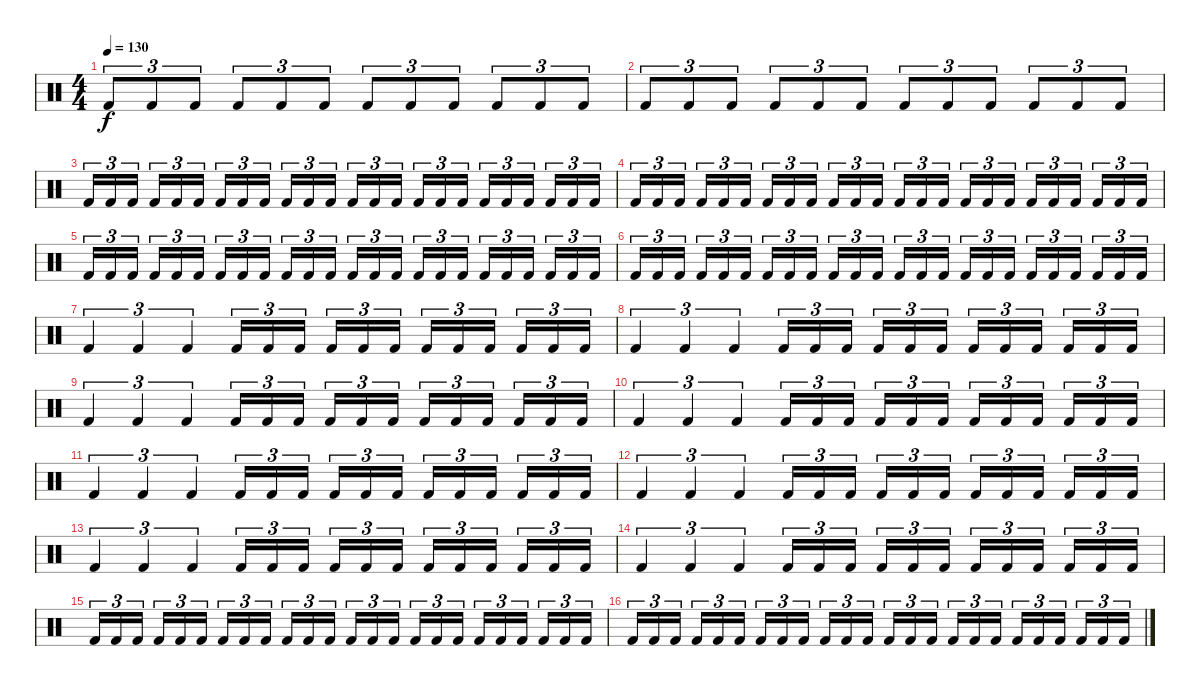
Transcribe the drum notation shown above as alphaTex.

\track "" {instrument percussion}
\staff {score}
\articulation defaults
\ts (4 4)
\tempo 130
\clef neutral
\ks c "Kick (hit) 2".8{tu (3 2) dy f} "Kick (hit) 2".8{tu (3 2)} "Kick (hit) 2".8{tu (3 2)} "Kick (hit) 2".8{tu (3 2)} "Kick (hit) 2".8{tu (3 2)} "Kick (hit) 2".8{tu (3 2)} "Kick (hit) 2".8{tu (3 2)} "Kick (hit) 2".8{tu (3 2)} "Kick (hit) 2".8{tu (3 2)} "Kick (hit) 2".8{tu (3 2)} "Kick (hit) 2".8{tu (3 2)} "Kick (hit) 2".8{tu (3 2)}
|
"Kick (hit) 2".8{tu (3 2)} "Kick (hit) 2".8{tu (3 2)} "Kick (hit) 2".8{tu (3 2)} "Kick (hit) 2".8{tu (3 2)} "Kick (hit) 2".8{tu (3 2)} "Kick (hit) 2".8{tu (3 2)} "Kick (hit) 2".8{tu (3 2)} "Kick (hit) 2".8{tu (3 2)} "Kick (hit) 2".8{tu (3 2)} "Kick (hit) 2".8{tu (3 2)} "Kick (hit) 2".8{tu (3 2)} "Kick (hit) 2".8{tu (3 2)} |
"Kick (hit) 2".16{tu (3 2)} "Kick (hit) 2".16{tu (3 2)} "Kick (hit) 2".16{tu (3 2)} "Kick (hit) 2".16{tu (3 2)} "Kick (hit) 2".16{tu (3 2)} "Kick (hit) 2".16{tu (3 2)} "Kick (hit) 2".16{tu (3 2)} "Kick (hit) 2".16{tu (3 2)} "Kick (hit) 2".16{tu (3 2)} "Kick (hit) 2".16{tu (3 2)} "Kick (hit) 2".16{tu (3 2)} "Kick (hit) 2".16{tu (3 2)} "Kick (hit) 2".16{tu (3 2)} "Kick (hit) 2".16{tu (3 2)} "Kick (hit) 2".16{tu (3 2)} "Kick (hit) 2".16{tu (3 2)} "Kick (hit) 2".16{tu (3 2)} "Kick (hit) 2".16{tu (3 2)} "Kick (hit) 2".16{tu (3 2)} "Kick (hit) 2".16{tu (3 2)} "Kick (hit) 2".16{tu (3 2)} "Kick (hit) 2".16{tu (3 2)} "Kick (hit) 2".16{tu (3 2)} "Kick (hit) 2".16{tu (3 2)} |
"Kick (hit) 2".16{tu (3 2)} "Kick (hit) 2".16{tu (3 2)} "Kick (hit) 2".16{tu (3 2)} "Kick (hit) 2".16{tu (3 2)} "Kick (hit) 2".16{tu (3 2)} "Kick (hit) 2".16{tu (3 2)} "Kick (hit) 2".16{tu (3 2)} "Kick (hit) 2".16{tu (3 2)} "Kick (hit) 2".16{tu (3 2)} "Kick (hit) 2".16{tu (3 2)} "Kick (hit) 2".16{tu (3 2)} "Kick (hit) 2".16{tu (3 2)} "Kick (hit) 2".16{tu (3 2)} "Kick (hit) 2".16{tu (3 2)} "Kick (hit) 2".16{tu (3 2)} "Kick (hit) 2".16{tu (3 2)} "Kick (hit) 2".16{tu (3 2)} "Kick (hit) 2".16{tu (3 2)} "Kick (hit) 2".16{tu (3 2)} "Kick (hit) 2".16{tu (3 2)} "Kick (hit) 2".16{tu (3 2)} "Kick (hit) 2".16{tu (3 2)} "Kick (hit) 2".16{tu (3 2)} "Kick (hit) 2".16{tu (3 2)} |
"Kick (hit) 2".16{tu (3 2)} "Kick (hit) 2".16{tu (3 2)} "Kick (hit) 2".16{tu (3 2)} "Kick (hit) 2".16{tu (3 2)} "Kick (hit) 2".16{tu (3 2)} "Kick (hit) 2".16{tu (3 2)} "Kick (hit) 2".16{tu (3 2)} "Kick (hit) 2".16{tu (3 2)} "Kick (hit) 2".16{tu (3 2)} "Kick (hit) 2".16{tu (3 2)} "Kick (hit) 2".16{tu (3 2)} "Kick (hit) 2".16{tu (3 2)} "Kick (hit) 2".16{tu (3 2)} "Kick (hit) 2".16{tu (3 2)} "Kick (hit) 2".16{tu (3 2)} "Kick (hit) 2".16{tu (3 2)} "Kick (hit) 2".16{tu (3 2)} "Kick (hit) 2".16{tu (3 2)} "Kick (hit) 2".16{tu (3 2)} "Kick (hit) 2".16{tu (3 2)} "Kick (hit) 2".16{tu (3 2)} "Kick (hit) 2".16{tu (3 2)} "Kick (hit) 2".16{tu (3 2)} "Kick (hit) 2".16{tu (3 2)} |
"Kick (hit) 2".16{tu (3 2)} "Kick (hit) 2".16{tu (3 2)} "Kick (hit) 2".16{tu (3 2)} "Kick (hit) 2".16{tu (3 2)} "Kick (hit) 2".16{tu (3 2)} "Kick (hit) 2".16{tu (3 2)} "Kick (hit) 2".16{tu (3 2)} "Kick (hit) 2".16{tu (3 2)} "Kick (hit) 2".16{tu (3 2)} "Kick (hit) 2".16{tu (3 2)} "Kick (hit) 2".16{tu (3 2)} "Kick (hit) 2".16{tu (3 2)} "Kick (hit) 2".16{tu (3 2)} "Kick (hit) 2".16{tu (3 2)} "Kick (hit) 2".16{tu (3 2)} "Kick (hit) 2".16{tu (3 2)} "Kick (hit) 2".16{tu (3 2)} "Kick (hit) 2".16{tu (3 2)} "Kick (hit) 2".16{tu (3 2)} "Kick (hit) 2".16{tu (3 2)} "Kick (hit) 2".16{tu (3 2)} "Kick (hit) 2".16{tu (3 2)} "Kick (hit) 2".16{tu (3 2)} "Kick (hit) 2".16{tu (3 2)} |
"Kick (hit) 2".4{tu (3 2)} "Kick (hit) 2".4{tu (3 2)} "Kick (hit) 2".4{tu (3 2)} "Kick (hit) 2".16{tu (3 2)} "Kick (hit) 2".16{tu (3 2)} "Kick (hit) 2".16{tu (3 2)} "Kick (hit) 2".16{tu (3 2)} "Kick (hit) 2".16{tu (3 2)} "Kick (hit) 2".16{tu (3 2)} "Kick (hit) 2".16{tu (3 2)} "Kick (hit) 2".16{tu (3 2)} "Kick (hit) 2".16{tu (3 2)} "Kick (hit) 2".16{tu (3 2)} "Kick (hit) 2".16{tu (3 2)} "Kick (hit) 2".16{tu (3 2)} |
"Kick (hit) 2".4{tu (3 2)} "Kick (hit) 2".4{tu (3 2)} "Kick (hit) 2".4{tu (3 2)} "Kick (hit) 2".16{tu (3 2)} "Kick (hit) 2".16{tu (3 2)} "Kick (hit) 2".16{tu (3 2)} "Kick (hit) 2".16{tu (3 2)} "Kick (hit) 2".16{tu (3 2)} "Kick (hit) 2".16{tu (3 2)} "Kick (hit) 2".16{tu (3 2)} "Kick (hit) 2".16{tu (3 2)} "Kick (hit) 2".16{tu (3 2)} "Kick (hit) 2".16{tu (3 2)} "Kick (hit) 2".16{tu (3 2)} "Kick (hit) 2".16{tu (3 2)} |
"Kick (hit) 2".4{tu (3 2)} "Kick (hit) 2".4{tu (3 2)} "Kick (hit) 2".4{tu (3 2)} "Kick (hit) 2".16{tu (3 2)} "Kick (hit) 2".16{tu (3 2)} "Kick (hit) 2".16{tu (3 2)} "Kick (hit) 2".16{tu (3 2)} "Kick (hit) 2".16{tu (3 2)} "Kick (hit) 2".16{tu (3 2)} "Kick (hit) 2".16{tu (3 2)} "Kick (hit) 2".16{tu (3 2)} "Kick (hit) 2".16{tu (3 2)} "Kick (hit) 2".16{tu (3 2)} "Kick (hit) 2".16{tu (3 2)} "Kick (hit) 2".16{tu (3 2)} |
"Kick (hit) 2".4{tu (3 2)} "Kick (hit) 2".4{tu (3 2)} "Kick (hit) 2".4{tu (3 2)} "Kick (hit) 2".16{tu (3 2)} "Kick (hit) 2".16{tu (3 2)} "Kick (hit) 2".16{tu (3 2)} "Kick (hit) 2".16{tu (3 2)} "Kick (hit) 2".16{tu (3 2)} "Kick (hit) 2".16{tu (3 2)} "Kick (hit) 2".16{tu (3 2)} "Kick (hit) 2".16{tu (3 2)} "Kick (hit) 2".16{tu (3 2)} "Kick (hit) 2".16{tu (3 2)} "Kick (hit) 2".16{tu (3 2)} "Kick (hit) 2".16{tu (3 2)} |
"Kick (hit) 2".4{tu (3 2)} "Kick (hit) 2".4{tu (3 2)} "Kick (hit) 2".4{tu (3 2)} "Kick (hit) 2".16{tu (3 2)} "Kick (hit) 2".16{tu (3 2)} "Kick (hit) 2".16{tu (3 2)} "Kick (hit) 2".16{tu (3 2)} "Kick (hit) 2".16{tu (3 2)} "Kick (hit) 2".16{tu (3 2)} "Kick (hit) 2".16{tu (3 2)} "Kick (hit) 2".16{tu (3 2)} "Kick (hit) 2".16{tu (3 2)} "Kick (hit) 2".16{tu (3 2)} "Kick (hit) 2".16{tu (3 2)} "Kick (hit) 2".16{tu (3 2)} |
"Kick (hit) 2".4{tu (3 2)} "Kick (hit) 2".4{tu (3 2)} "Kick (hit) 2".4{tu (3 2)} "Kick (hit) 2".16{tu (3 2)} "Kick (hit) 2".16{tu (3 2)} "Kick (hit) 2".16{tu (3 2)} "Kick (hit) 2".16{tu (3 2)} "Kick (hit) 2".16{tu (3 2)} "Kick (hit) 2".16{tu (3 2)} "Kick (hit) 2".16{tu (3 2)} "Kick (hit) 2".16{tu (3 2)} "Kick (hit) 2".16{tu (3 2)} "Kick (hit) 2".16{tu (3 2)} "Kick (hit) 2".16{tu (3 2)} "Kick (hit) 2".16{tu (3 2)} |
"Kick (hit) 2".4{tu (3 2)} "Kick (hit) 2".4{tu (3 2)} "Kick (hit) 2".4{tu (3 2)} "Kick (hit) 2".16{tu (3 2)} "Kick (hit) 2".16{tu (3 2)} "Kick (hit) 2".16{tu (3 2)} "Kick (hit) 2".16{tu (3 2)} "Kick (hit) 2".16{tu (3 2)} "Kick (hit) 2".16{tu (3 2)} "Kick (hit) 2".16{tu (3 2)} "Kick (hit) 2".16{tu (3 2)} "Kick (hit) 2".16{tu (3 2)} "Kick (hit) 2".16{tu (3 2)} "Kick (hit) 2".16{tu (3 2)} "Kick (hit) 2".16{tu (3 2)} |
"Kick (hit) 2".4{tu (3 2)} "Kick (hit) 2".4{tu (3 2)} "Kick (hit) 2".4{tu (3 2)} "Kick (hit) 2".16{tu (3 2)} "Kick (hit) 2".16{tu (3 2)} "Kick (hit) 2".16{tu (3 2)} "Kick (hit) 2".16{tu (3 2)} "Kick (hit) 2".16{tu (3 2)} "Kick (hit) 2".16{tu (3 2)} "Kick (hit) 2".16{tu (3 2)} "Kick (hit) 2".16{tu (3 2)} "Kick (hit) 2".16{tu (3 2)} "Kick (hit) 2".16{tu (3 2)} "Kick (hit) 2".16{tu (3 2)} "Kick (hit) 2".16{tu (3 2)} |
"Kick (hit) 2".16{tu (3 2)} "Kick (hit) 2".16{tu (3 2)} "Kick (hit) 2".16{tu (3 2)} "Kick (hit) 2".16{tu (3 2)} "Kick (hit) 2".16{tu (3 2)} "Kick (hit) 2".16{tu (3 2)} "Kick (hit) 2".16{tu (3 2)} "Kick (hit) 2".16{tu (3 2)} "Kick (hit) 2".16{tu (3 2)} "Kick (hit) 2".16{tu (3 2)} "Kick (hit) 2".16{tu (3 2)} "Kick (hit) 2".16{tu (3 2)} "Kick (hit) 2".16{tu (3 2)} "Kick (hit) 2".16{tu (3 2)} "Kick (hit) 2".16{tu (3 2)} "Kick (hit) 2".16{tu (3 2)} "Kick (hit) 2".16{tu (3 2)} "Kick (hit) 2".16{tu (3 2)} "Kick (hit) 2".16{tu (3 2)} "Kick (hit) 2".16{tu (3 2)} "Kick (hit) 2".16{tu (3 2)} "Kick (hit) 2".16{tu (3 2)} "Kick (hit) 2".16{tu (3 2)} "Kick (hit) 2".16{tu (3 2)} |
"Kick (hit) 2".16{tu (3 2)} "Kick (hit) 2".16{tu (3 2)} "Kick (hit) 2".16{tu (3 2)} "Kick (hit) 2".16{tu (3 2)} "Kick (hit) 2".16{tu (3 2)} "Kick (hit) 2".16{tu (3 2)} "Kick (hit) 2".16{tu (3 2)} "Kick (hit) 2".16{tu (3 2)} "Kick (hit) 2".16{tu (3 2)} "Kick (hit) 2".16{tu (3 2)} "Kick (hit) 2".16{tu (3 2)} "Kick (hit) 2".16{tu (3 2)} "Kick (hit) 2".16{tu (3 2)} "Kick (hit) 2".16{tu (3 2)} "Kick (hit) 2".16{tu (3 2)} "Kick (hit) 2".16{tu (3 2)} "Kick (hit) 2".16{tu (3 2)} "Kick (hit) 2".16{tu (3 2)} "Kick (hit) 2".16{tu (3 2)} "Kick (hit) 2".16{tu (3 2)} "Kick (hit) 2".16{tu (3 2)} "Kick (hit) 2".16{tu (3 2)} "Kick (hit) 2".16{tu (3 2)} "Kick (hit) 2".16{tu (3 2)}
